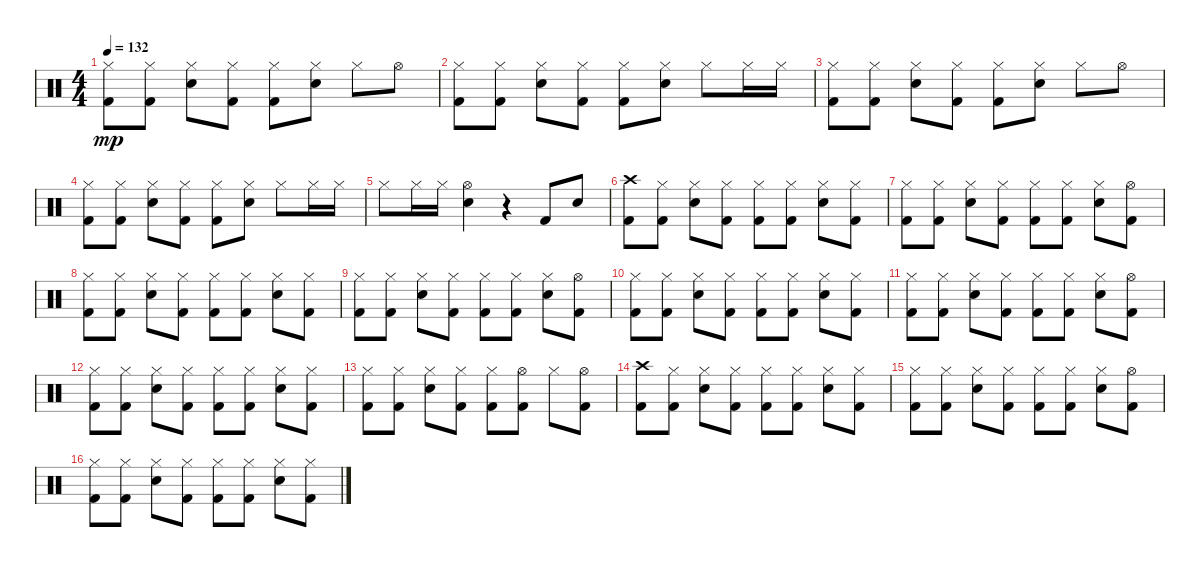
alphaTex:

\track "" {instrument percussion}
\staff {score}
\articulation defaults
\ts (4 4)
\tempo 132
\clef neutral
\ks c
("Hi-Hat (closed)" "Kick (hit) 2").8{dy mp} ("Hi-Hat (closed)" "Kick (hit) 2").8 ("Snare (hit) 2" "Hi-Hat (closed)").8 ("Hi-Hat (closed)" "Kick (hit) 2").8 ("Hi-Hat (closed)" "Kick (hit) 2").8 ("Snare (hit) 2" "Hi-Hat (closed)").8 "Hi-Hat (closed)".8 "Hi-Hat (open)".8 |
("Hi-Hat (closed)" "Kick (hit) 2").8 ("Hi-Hat (closed)" "Kick (hit) 2").8 ("Snare (hit) 2" "Hi-Hat (closed)").8 ("Hi-Hat (closed)" "Kick (hit) 2").8 ("Hi-Hat (closed)" "Kick (hit) 2").8 ("Snare (hit) 2" "Hi-Hat (closed)").8 "Hi-Hat (closed)".8 "Hi-Hat (closed)".16 "Hi-Hat (closed)".16 |
("Hi-Hat (closed)" "Kick (hit) 2").8 ("Hi-Hat (closed)" "Kick (hit) 2").8 ("Snare (hit) 2" "Hi-Hat (closed)").8 ("Hi-Hat (closed)" "Kick (hit) 2").8 ("Hi-Hat (closed)" "Kick (hit) 2").8 ("Snare (hit) 2" "Hi-Hat (closed)").8 "Hi-Hat (closed)".8 "Hi-Hat (open)".8 |
("Hi-Hat (closed)" "Kick (hit) 2").8 ("Hi-Hat (closed)" "Kick (hit) 2").8 ("Snare (hit) 2" "Hi-Hat (closed)").8 ("Hi-Hat (closed)" "Kick (hit) 2").8 ("Hi-Hat (closed)" "Kick (hit) 2").8 ("Snare (hit) 2" "Hi-Hat (closed)").8 "Hi-Hat (closed)".8 "Hi-Hat (closed)".16 "Hi-Hat (closed)".16 |
"Hi-Hat (closed)".8 "Hi-Hat (closed)".16 "Hi-Hat (closed)".16 ("Snare (hit) 2" "Hi-Hat (open)").4 r.4 "Kick (hit) 2".8 "Snare (hit) 2".8 |
("Crash high (hit)" "Kick (hit) 2").8 ("Hi-Hat (closed)" "Kick (hit) 2").8 ("Snare (hit) 2" "Hi-Hat (closed)").8 ("Hi-Hat (closed)" "Kick (hit) 2").8 ("Hi-Hat (closed)" "Kick (hit) 2").8 ("Hi-Hat (closed)" "Kick (hit) 2").8 ("Snare (hit) 2" "Hi-Hat (closed)").8 ("Hi-Hat (closed)" "Kick (hit) 2").8 |
("Hi-Hat (closed)" "Kick (hit) 2").8 ("Hi-Hat (closed)" "Kick (hit) 2").8 ("Snare (hit) 2" "Hi-Hat (closed)").8 ("Hi-Hat (closed)" "Kick (hit) 2").8 ("Hi-Hat (closed)" "Kick (hit) 2").8 ("Hi-Hat (closed)" "Kick (hit) 2").8 ("Snare (hit) 2" "Hi-Hat (closed)").8 ("Hi-Hat (open)" "Kick (hit) 2").8 |
("Hi-Hat (closed)" "Kick (hit) 2").8 ("Hi-Hat (closed)" "Kick (hit) 2").8 ("Snare (hit) 2" "Hi-Hat (closed)").8 ("Hi-Hat (closed)" "Kick (hit) 2").8 ("Hi-Hat (closed)" "Kick (hit) 2").8 ("Hi-Hat (closed)" "Kick (hit) 2").8 ("Snare (hit) 2" "Hi-Hat (closed)").8 ("Hi-Hat (closed)" "Kick (hit) 2").8 |
("Hi-Hat (closed)" "Kick (hit) 2").8 ("Hi-Hat (closed)" "Kick (hit) 2").8 ("Snare (hit) 2" "Hi-Hat (closed)").8 ("Hi-Hat (closed)" "Kick (hit) 2").8 ("Hi-Hat (closed)" "Kick (hit) 2").8 ("Hi-Hat (closed)" "Kick (hit) 2").8 ("Snare (hit) 2" "Hi-Hat (closed)").8 ("Hi-Hat (open)" "Kick (hit) 2").8 |
("Hi-Hat (closed)" "Kick (hit) 2").8 ("Hi-Hat (closed)" "Kick (hit) 2").8 ("Snare (hit) 2" "Hi-Hat (closed)").8 ("Hi-Hat (closed)" "Kick (hit) 2").8 ("Hi-Hat (closed)" "Kick (hit) 2").8 ("Hi-Hat (closed)" "Kick (hit) 2").8 ("Snare (hit) 2" "Hi-Hat (closed)").8 ("Hi-Hat (closed)" "Kick (hit) 2").8 |
("Hi-Hat (closed)" "Kick (hit) 2").8 ("Hi-Hat (closed)" "Kick (hit) 2").8 ("Snare (hit) 2" "Hi-Hat (closed)").8 ("Hi-Hat (closed)" "Kick (hit) 2").8 ("Hi-Hat (closed)" "Kick (hit) 2").8 ("Hi-Hat (closed)" "Kick (hit) 2").8 ("Snare (hit) 2" "Hi-Hat (closed)").8 ("Hi-Hat (open)" "Kick (hit) 2").8 |
("Hi-Hat (closed)" "Kick (hit) 2").8 ("Hi-Hat (closed)" "Kick (hit) 2").8 ("Snare (hit) 2" "Hi-Hat (closed)").8 ("Hi-Hat (closed)" "Kick (hit) 2").8 ("Hi-Hat (closed)" "Kick (hit) 2").8 ("Hi-Hat (closed)" "Kick (hit) 2").8 ("Snare (hit) 2" "Hi-Hat (closed)").8 ("Hi-Hat (closed)" "Kick (hit) 2").8 |
("Hi-Hat (closed)" "Kick (hit) 2").8 ("Hi-Hat (closed)" "Kick (hit) 2").8 ("Snare (hit) 2" "Hi-Hat (closed)").8 ("Hi-Hat (closed)" "Kick (hit) 2").8 ("Hi-Hat (closed)" "Kick (hit) 2").8 ("Hi-Hat (open)" "Kick (hit) 2").8 "Hi-Hat (closed)".8 ("Hi-Hat (open)" "Kick (hit) 2").8 |
("Crash high (hit)" "Kick (hit) 2").8 ("Hi-Hat (closed)" "Kick (hit) 2").8 ("Snare (hit) 2" "Hi-Hat (closed)").8 ("Hi-Hat (closed)" "Kick (hit) 2").8 ("Hi-Hat (closed)" "Kick (hit) 2").8 ("Hi-Hat (closed)" "Kick (hit) 2").8 ("Snare (hit) 2" "Hi-Hat (closed)").8 ("Hi-Hat (closed)" "Kick (hit) 2").8 |
("Hi-Hat (closed)" "Kick (hit) 2").8 ("Hi-Hat (closed)" "Kick (hit) 2").8 ("Snare (hit) 2" "Hi-Hat (closed)").8 ("Hi-Hat (closed)" "Kick (hit) 2").8 ("Hi-Hat (closed)" "Kick (hit) 2").8 ("Hi-Hat (closed)" "Kick (hit) 2").8 ("Snare (hit) 2" "Hi-Hat (closed)").8 ("Hi-Hat (open)" "Kick (hit) 2").8 |
("Hi-Hat (closed)" "Kick (hit) 2").8 ("Hi-Hat (closed)" "Kick (hit) 2").8 ("Snare (hit) 2" "Hi-Hat (closed)").8 ("Hi-Hat (closed)" "Kick (hit) 2").8 ("Hi-Hat (closed)" "Kick (hit) 2").8 ("Hi-Hat (closed)" "Kick (hit) 2").8 ("Snare (hit) 2" "Hi-Hat (closed)").8 ("Hi-Hat (closed)" "Kick (hit) 2").8
